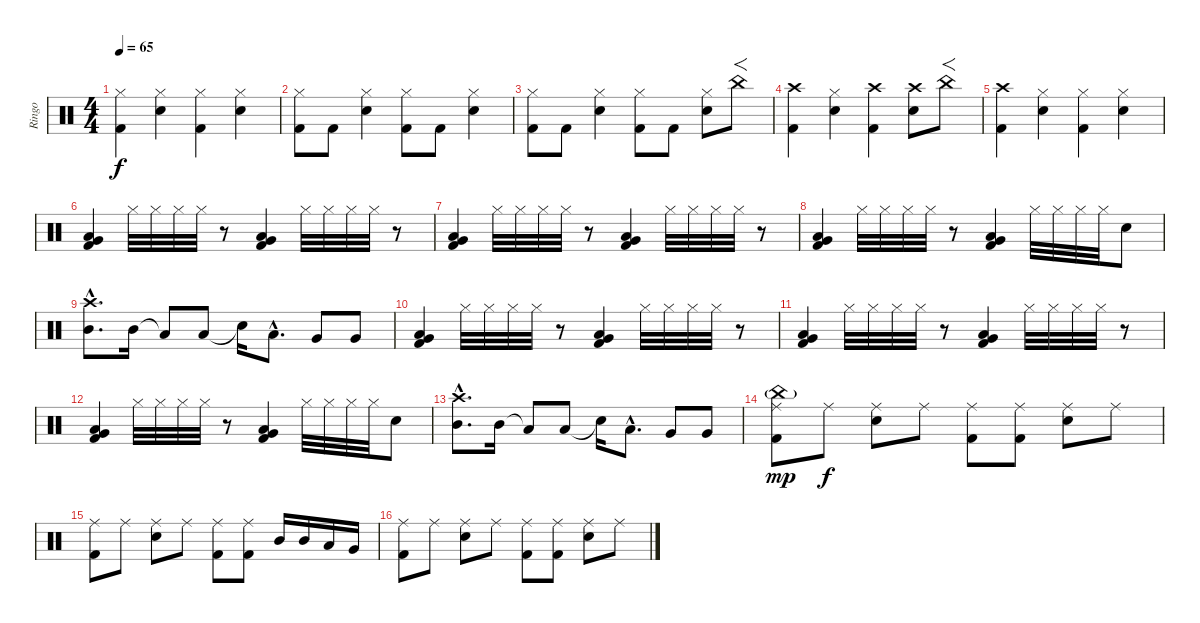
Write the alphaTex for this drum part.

\track ("Ringo" "Ringo") {instrument percussion}
\staff {score}
\articulation defaults
\ts (4 4)
\tempo 65
\clef neutral
\ks c
("Hi-Hat (closed)" "Kick (hit) 2").4{dy f} ("Hi-Hat (closed)" "Snare (hit) 2").4 ("Hi-Hat (closed)" "Kick (hit) 2").4 ("Hi-Hat (closed)" "Snare (hit) 2").4 |
("Hi-Hat (closed)" "Kick (hit) 2").8 "Kick (hit) 2".8 ("Hi-Hat (closed)" "Snare (hit) 2").4 ("Hi-Hat (closed)" "Kick (hit) 2").8 "Kick (hit) 2".8 ("Hi-Hat (closed)" "Snare (hit) 2").4 |
("Hi-Hat (closed)" "Kick (hit) 2").8 "Kick (hit) 2".8 ("Hi-Hat (closed)" "Snare (hit) 2").4 ("Hi-Hat (closed)" "Kick (hit) 2").8 "Kick (hit) 2".8 ("Hi-Hat (closed)" "Snare (hit) 2").8 "China (hit)".8{f} |
("Crash high (hit)" "Kick (hit) 2").4 ("Hi-Hat (closed)" "Snare (hit) 2").4 ("Crash high (hit)" "Kick (hit) 2").4 ("Crash high (hit)" "Snare (hit) 2").8 "China (hit)".8{f} |
("Crash high (hit)" "Kick (hit) 2").4 ("Hi-Hat (closed)" "Snare (hit) 2").4 ("Hi-Hat (closed)" "Kick (hit) 2").4 ("Hi-Hat (closed)" "Snare (hit) 2").4 |
("Very Low Tom (hit)" "Low Tom (hit)" "Kick (hit) 2").4 "Hi-Hat (closed)".32 "Hi-Hat (closed)".32 "Hi-Hat (closed)".32 "Hi-Hat (closed)".32 r.8 ("Very Low Tom (hit)" "Low Tom (hit)" "Kick (hit) 2").4 "Hi-Hat (closed)".32 "Hi-Hat (closed)".32 "Hi-Hat (closed)".32 "Hi-Hat (closed)".32 r.8 |
("Very Low Tom (hit)" "Low Tom (hit)" "Kick (hit) 2").4 "Hi-Hat (closed)".32 "Hi-Hat (closed)".32 "Hi-Hat (closed)".32 "Hi-Hat (closed)".32 r.8 ("Very Low Tom (hit)" "Low Tom (hit)" "Kick (hit) 2").4 "Hi-Hat (closed)".32 "Hi-Hat (closed)".32 "Hi-Hat (closed)".32 "Hi-Hat (closed)".32 r.8 |
("Very Low Tom (hit)" "Low Tom (hit)" "Kick (hit) 2").4 "Hi-Hat (closed)".32 "Hi-Hat (closed)".32 "Hi-Hat (closed)".32 "Hi-Hat (closed)".32 r.8 ("Very Low Tom (hit)" "Low Tom (hit)" "Kick (hit) 2").4 "Hi-Hat (closed)".32 "Hi-Hat (closed)".32 "Hi-Hat (closed)".32 "Hi-Hat (closed)".32 "Snare (hit) 2".8 |
("Crash high (hit)"{hac} "Mid Tom (hit)"{hac}).8{d} "Mid Tom (hit)".16 "Low Tom (hit)"{t}.8 "Low Tom (hit)".8 "Snare (hit)"{t}.16 "Low Tom (hit)"{hac}.8{d} "Very Low Tom (hit)".8 "Very Low Tom (hit)".8 |
("Very Low Tom (hit)" "Low Tom (hit)" "Kick (hit) 2").4 "Hi-Hat (closed)".32 "Hi-Hat (closed)".32 "Hi-Hat (closed)".32 "Hi-Hat (closed)".32 r.8 ("Very Low Tom (hit)" "Low Tom (hit)" "Kick (hit) 2").4 "Hi-Hat (closed)".32 "Hi-Hat (closed)".32 "Hi-Hat (closed)".32 "Hi-Hat (closed)".32 r.8 |
("Very Low Tom (hit)" "Low Tom (hit)" "Kick (hit) 2").4 "Hi-Hat (closed)".32 "Hi-Hat (closed)".32 "Hi-Hat (closed)".32 "Hi-Hat (closed)".32 r.8 ("Very Low Tom (hit)" "Low Tom (hit)" "Kick (hit) 2").4 "Hi-Hat (closed)".32 "Hi-Hat (closed)".32 "Hi-Hat (closed)".32 "Hi-Hat (closed)".32 r.8 |
("Very Low Tom (hit)" "Low Tom (hit)" "Kick (hit) 2").4 "Hi-Hat (closed)".32 "Hi-Hat (closed)".32 "Hi-Hat (closed)".32 "Hi-Hat (closed)".32 r.8 ("Very Low Tom (hit)" "Low Tom (hit)" "Kick (hit) 2").4 "Hi-Hat (closed)".32 "Hi-Hat (closed)".32 "Hi-Hat (closed)".32 "Hi-Hat (closed)".32 "Snare (hit) 2".8 |
("Crash high (hit)"{hac} "Mid Tom (hit)"{hac}).8{d} "Mid Tom (hit)".16 "Low Tom (hit)"{t}.8 "Low Tom (hit)".8 "Snare (hit)"{t}.16 "Low Tom (hit)"{hac}.8{d} "Very Low Tom (hit)".8 "Very Low Tom (hit)".8 |
("China (hit)"{g} "Ride (middle)" "Kick (hit) 2").8{dy mp} "Ride (middle)".8{dy f} ("Ride (middle)" "Snare (hit) 2").8 "Ride (middle)".8 ("Ride (middle)" "Kick (hit) 2").8 ("Ride (middle)" "Kick (hit) 2").8 ("Ride (middle)" "Snare (hit) 2").8 "Ride (middle)".8 |
("Ride (middle)" "Kick (hit) 2").8 "Ride (middle)".8 ("Ride (middle)" "Snare (hit) 2").8 "Ride (middle)".8 ("Ride (middle)" "Kick (hit) 2").8 ("Ride (middle)" "Kick (hit) 2").8 "Mid Tom (hit)".16 "Mid Tom (hit)".16 "Low Tom (hit)".16 "Very Low Tom (hit)".16 |
("Ride (middle)" "Kick (hit) 2").8 "Ride (middle)".8 ("Ride (middle)" "Snare (hit) 2").8 "Ride (middle)".8 ("Ride (middle)" "Kick (hit) 2").8 ("Ride (middle)" "Kick (hit) 2").8 ("Ride (middle)" "Snare (hit) 2").8 "Ride (middle)".8
